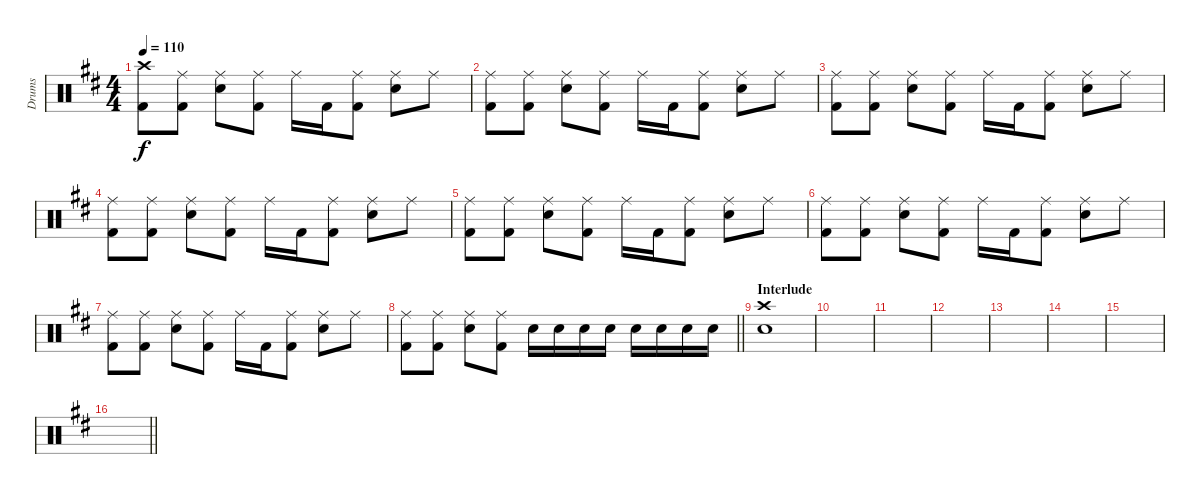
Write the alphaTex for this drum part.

\track ("Drums" "Drums") {instrument percussion}
\staff {score}
\articulation defaults
\ts (4 4)
\tempo 110
\clef neutral
\ks bminor
("Crash high (hit)" "Kick (hit) 2").8{dy f} ("Ride (middle)" "Kick (hit) 2").8 ("Ride (middle)" "Electric Snare (hit)").8 ("Ride (middle)" "Kick (hit) 2").8 "Ride (middle)".16 "Kick (hit) 2".16 ("Ride (middle)" "Kick (hit) 2").8 ("Ride (middle)" "Electric Snare (hit)").8 "Ride (middle)".8 |
("Ride (middle)" "Kick (hit) 2").8 ("Ride (middle)" "Kick (hit) 2").8 ("Ride (middle)" "Electric Snare (hit)").8 ("Ride (middle)" "Kick (hit) 2").8 "Ride (middle)".16 "Kick (hit) 2".16 ("Ride (middle)" "Kick (hit) 2").8 ("Ride (middle)" "Electric Snare (hit)").8 "Ride (middle)".8 |
("Ride (middle)" "Kick (hit) 2").8 ("Ride (middle)" "Kick (hit) 2").8 ("Ride (middle)" "Electric Snare (hit)").8 ("Ride (middle)" "Kick (hit) 2").8 "Ride (middle)".16 "Kick (hit) 2".16 ("Ride (middle)" "Kick (hit) 2").8 ("Ride (middle)" "Electric Snare (hit)").8 "Ride (middle)".8 |
("Ride (middle)" "Kick (hit) 2").8 ("Ride (middle)" "Kick (hit) 2").8 ("Ride (middle)" "Electric Snare (hit)").8 ("Ride (middle)" "Kick (hit) 2").8 "Ride (middle)".16 "Kick (hit) 2".16 ("Ride (middle)" "Kick (hit) 2").8 ("Ride (middle)" "Electric Snare (hit)").8 "Ride (middle)".8 |
("Ride (middle)" "Kick (hit) 2").8 ("Ride (middle)" "Kick (hit) 2").8 ("Ride (middle)" "Electric Snare (hit)").8 ("Ride (middle)" "Kick (hit) 2").8 "Ride (middle)".16 "Kick (hit) 2".16 ("Ride (middle)" "Kick (hit) 2").8 ("Ride (middle)" "Electric Snare (hit)").8 "Ride (middle)".8 |
("Ride (middle)" "Kick (hit) 2").8 ("Ride (middle)" "Kick (hit) 2").8 ("Ride (middle)" "Electric Snare (hit)").8 ("Ride (middle)" "Kick (hit) 2").8 "Ride (middle)".16 "Kick (hit) 2".16 ("Ride (middle)" "Kick (hit) 2").8 ("Ride (middle)" "Electric Snare (hit)").8 "Ride (middle)".8 |
("Ride (middle)" "Kick (hit) 2").8 ("Ride (middle)" "Kick (hit) 2").8 ("Ride (middle)" "Electric Snare (hit)").8 ("Ride (middle)" "Kick (hit) 2").8 "Ride (middle)".16 "Kick (hit) 2".16 ("Ride (middle)" "Kick (hit) 2").8 ("Ride (middle)" "Electric Snare (hit)").8 "Ride (middle)".8 |
\barLineRight lightlight
("Ride (middle)" "Kick (hit) 2").8 ("Ride (middle)" "Kick (hit) 2").8 ("Ride (middle)" "Electric Snare (hit)").8 ("Ride (middle)" "Kick (hit) 2").8 "Electric Snare (hit)".16 "Electric Snare (hit)".16 "Electric Snare (hit)".16 "Electric Snare (hit)".16 "Electric Snare (hit)".16 "Electric Snare (hit)".16 "Electric Snare (hit)".16 "Electric Snare (hit)".16 |
\section ("" "Interlude")
("Crash high (hit)" "Electric Snare (hit)").1 |
|
|
|
|
|
|
\barLineRight lightlight
